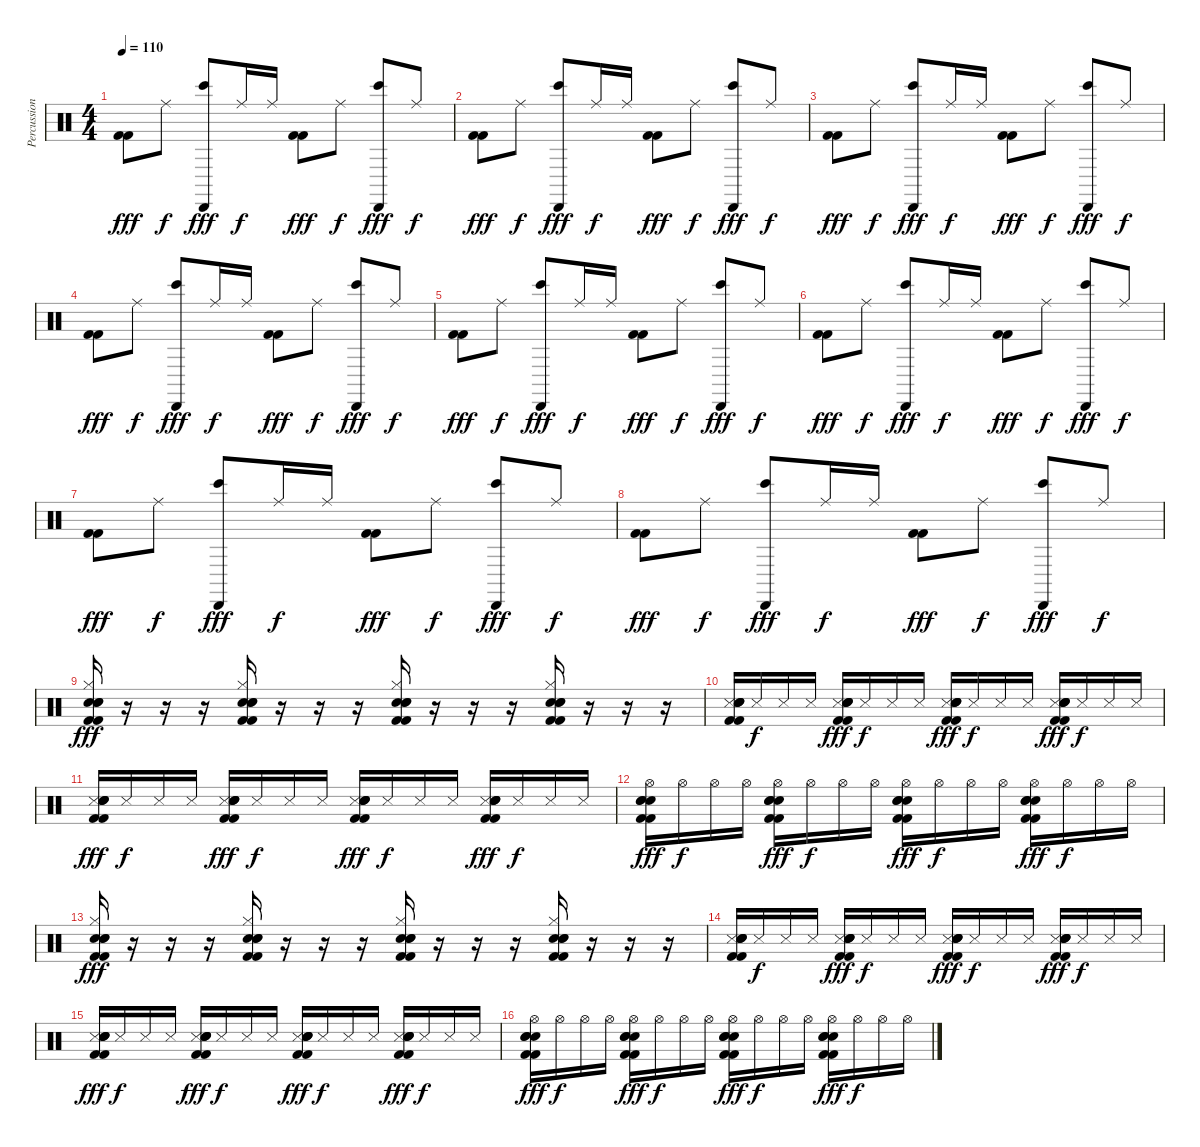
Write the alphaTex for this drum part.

\track ("Percussion" "Percussion") {instrument percussion}
\staff {score}
\articulation defaults
\ts (4 4)
\tempo 110
\clef neutral
\ks c
("Kick (hit) 2" "Kick (hit) 2").8{dy fff} "Ride (middle)".8{dy f} ("Bongo High (hit)" "Cabasa (hit)").8{dy fff} "Ride (middle)".16{dy f} "Ride (middle)".16 ("Kick (hit) 2" "Kick (hit) 2").8{dy fff} "Ride (middle)".8{dy f} ("Bongo High (hit)" "Cabasa (hit)").8{dy fff} "Ride (middle)".8{dy f} |
("Kick (hit) 2" "Kick (hit) 2").8{dy fff} "Ride (middle)".8{dy f} ("Bongo High (hit)" "Cabasa (hit)").8{dy fff} "Ride (middle)".16{dy f} "Ride (middle)".16 ("Kick (hit) 2" "Kick (hit) 2").8{dy fff} "Ride (middle)".8{dy f} ("Bongo High (hit)" "Cabasa (hit)").8{dy fff} "Ride (middle)".8{dy f} |
("Kick (hit) 2" "Kick (hit) 2").8{dy fff} "Ride (middle)".8{dy f} ("Bongo High (hit)" "Cabasa (hit)").8{dy fff} "Ride (middle)".16{dy f} "Ride (middle)".16 ("Kick (hit) 2" "Kick (hit) 2").8{dy fff} "Ride (middle)".8{dy f} ("Bongo High (hit)" "Cabasa (hit)").8{dy fff} "Ride (middle)".8{dy f} |
("Kick (hit) 2" "Kick (hit) 2").8{dy fff} "Ride (middle)".8{dy f} ("Bongo High (hit)" "Cabasa (hit)").8{dy fff} "Ride (middle)".16{dy f} "Ride (middle)".16 ("Kick (hit) 2" "Kick (hit) 2").8{dy fff} "Ride (middle)".8{dy f} ("Bongo High (hit)" "Cabasa (hit)").8{dy fff} "Ride (middle)".8{dy f} |
("Kick (hit) 2" "Kick (hit) 2").8{dy fff} "Ride (middle)".8{dy f} ("Bongo High (hit)" "Cabasa (hit)").8{dy fff} "Ride (middle)".16{dy f} "Ride (middle)".16 ("Kick (hit) 2" "Kick (hit) 2").8{dy fff} "Ride (middle)".8{dy f} ("Bongo High (hit)" "Cabasa (hit)").8{dy fff} "Ride (middle)".8{dy f} |
("Kick (hit) 2" "Kick (hit) 2").8{dy fff} "Ride (middle)".8{dy f} ("Bongo High (hit)" "Cabasa (hit)").8{dy fff} "Ride (middle)".16{dy f} "Ride (middle)".16 ("Kick (hit) 2" "Kick (hit) 2").8{dy fff} "Ride (middle)".8{dy f} ("Bongo High (hit)" "Cabasa (hit)").8{dy fff} "Ride (middle)".8{dy f} |
("Kick (hit) 2" "Kick (hit) 2").8{dy fff} "Ride (middle)".8{dy f} ("Bongo High (hit)" "Cabasa (hit)").8{dy fff} "Ride (middle)".16{dy f} "Ride (middle)".16 ("Kick (hit) 2" "Kick (hit) 2").8{dy fff} "Ride (middle)".8{dy f} ("Bongo High (hit)" "Cabasa (hit)").8{dy fff} "Ride (middle)".8{dy f} |
("Kick (hit) 2" "Kick (hit) 2").8{dy fff} "Ride (middle)".8{dy f} ("Bongo High (hit)" "Cabasa (hit)").8{dy fff} "Ride (middle)".16{dy f} "Ride (middle)".16 ("Kick (hit) 2" "Kick (hit) 2").8{dy fff} "Ride (middle)".8{dy f} ("Bongo High (hit)" "Cabasa (hit)").8{dy fff} "Ride (middle)".8{dy f} |
("Hi-Hat (closed)" "Electric Snare (hit)" "Kick (hit) 2" "Electric Snare (hit)" "Kick (hit) 2" "Electric Snare (hit)").16{dy fff volume 16} r.16 r.16 r.16 ("Hi-Hat (closed)" "Electric Snare (hit)" "Kick (hit) 2" "Electric Snare (hit)" "Kick (hit) 2" "Electric Snare (hit)").16 r.16 r.16 r.16 ("Hi-Hat (closed)" "Electric Snare (hit)" "Kick (hit) 2" "Electric Snare (hit)" "Kick (hit) 2" "Electric Snare (hit)").16 r.16 r.16 r.16 ("Hi-Hat (closed)" "Electric Snare (hit)" "Kick (hit) 2" "Electric Snare (hit)" "Kick (hit) 2" "Electric Snare (hit)").16 r.16 r.16 r.16 |
("Metronome (hit)" "Electric Snare (hit)" "Kick (hit) 2" "Electric Snare (hit)" "Kick (hit) 2" "Electric Snare (hit)").16 "Metronome (hit)".16{dy f} "Metronome (hit)".16 "Metronome (hit)".16 ("Metronome (hit)" "Electric Snare (hit)" "Kick (hit) 2" "Electric Snare (hit)" "Kick (hit) 2" "Electric Snare (hit)").16{dy fff} "Metronome (hit)".16{dy f} "Metronome (hit)".16 "Metronome (hit)".16 ("Metronome (hit)" "Electric Snare (hit)" "Kick (hit) 2" "Electric Snare (hit)" "Kick (hit) 2" "Electric Snare (hit)").16{dy fff} "Metronome (hit)".16{dy f} "Metronome (hit)".16 "Metronome (hit)".16 ("Metronome (hit)" "Electric Snare (hit)" "Kick (hit) 2" "Electric Snare (hit)" "Kick (hit) 2" "Electric Snare (hit)").16{dy fff} "Metronome (hit)".16{dy f} "Metronome (hit)".16 "Metronome (hit)".16 |
("Metronome (hit)" "Electric Snare (hit)" "Kick (hit) 2" "Electric Snare (hit)" "Kick (hit) 2" "Electric Snare (hit)").16{dy fff} "Metronome (hit)".16{dy f} "Metronome (hit)".16 "Metronome (hit)".16 ("Metronome (hit)" "Electric Snare (hit)" "Kick (hit) 2" "Electric Snare (hit)" "Kick (hit) 2" "Electric Snare (hit)").16{dy fff} "Metronome (hit)".16{dy f} "Metronome (hit)".16 "Metronome (hit)".16 ("Metronome (hit)" "Electric Snare (hit)" "Kick (hit) 2" "Electric Snare (hit)" "Kick (hit) 2" "Electric Snare (hit)").16{dy fff} "Metronome (hit)".16{dy f} "Metronome (hit)".16 "Metronome (hit)".16 ("Metronome (hit)" "Electric Snare (hit)" "Kick (hit) 2" "Electric Snare (hit)" "Kick (hit) 2" "Electric Snare (hit)").16{dy fff} "Metronome (hit)".16{dy f} "Metronome (hit)".16 "Metronome (hit)".16 |
("Hi-Hat (open)" "Electric Snare (hit)" "Kick (hit) 2" "Electric Snare (hit)" "Kick (hit) 2" "Electric Snare (hit)").16{dy fff} "Hi-Hat (open)".16{dy f} "Hi-Hat (open)".16 "Hi-Hat (open)".16 ("Hi-Hat (open)" "Electric Snare (hit)" "Kick (hit) 2" "Electric Snare (hit)" "Kick (hit) 2" "Electric Snare (hit)").16{dy fff} "Hi-Hat (open)".16{dy f} "Hi-Hat (open)".16 "Hi-Hat (open)".16 ("Hi-Hat (open)" "Electric Snare (hit)" "Kick (hit) 2" "Electric Snare (hit)" "Kick (hit) 2" "Electric Snare (hit)").16{dy fff} "Hi-Hat (open)".16{dy f} "Hi-Hat (open)".16 "Hi-Hat (open)".16 ("Hi-Hat (open)" "Electric Snare (hit)" "Kick (hit) 2" "Electric Snare (hit)" "Kick (hit) 2" "Electric Snare (hit)").16{dy fff} "Hi-Hat (open)".16{dy f} "Hi-Hat (open)".16 "Hi-Hat (open)".16 |
("Hi-Hat (closed)" "Electric Snare (hit)" "Kick (hit) 2" "Electric Snare (hit)" "Kick (hit) 2" "Electric Snare (hit)").16{dy fff volume 16} r.16 r.16 r.16 ("Hi-Hat (closed)" "Electric Snare (hit)" "Kick (hit) 2" "Electric Snare (hit)" "Kick (hit) 2" "Electric Snare (hit)").16 r.16 r.16 r.16 ("Hi-Hat (closed)" "Electric Snare (hit)" "Kick (hit) 2" "Electric Snare (hit)" "Kick (hit) 2" "Electric Snare (hit)").16 r.16 r.16 r.16 ("Hi-Hat (closed)" "Electric Snare (hit)" "Kick (hit) 2" "Electric Snare (hit)" "Kick (hit) 2" "Electric Snare (hit)").16 r.16 r.16 r.16 |
("Metronome (hit)" "Electric Snare (hit)" "Kick (hit) 2" "Electric Snare (hit)" "Kick (hit) 2" "Electric Snare (hit)").16 "Metronome (hit)".16{dy f} "Metronome (hit)".16 "Metronome (hit)".16 ("Metronome (hit)" "Electric Snare (hit)" "Kick (hit) 2" "Electric Snare (hit)" "Kick (hit) 2" "Electric Snare (hit)").16{dy fff} "Metronome (hit)".16{dy f} "Metronome (hit)".16 "Metronome (hit)".16 ("Metronome (hit)" "Electric Snare (hit)" "Kick (hit) 2" "Electric Snare (hit)" "Kick (hit) 2" "Electric Snare (hit)").16{dy fff} "Metronome (hit)".16{dy f} "Metronome (hit)".16 "Metronome (hit)".16 ("Metronome (hit)" "Electric Snare (hit)" "Kick (hit) 2" "Electric Snare (hit)" "Kick (hit) 2" "Electric Snare (hit)").16{dy fff} "Metronome (hit)".16{dy f} "Metronome (hit)".16 "Metronome (hit)".16 |
("Metronome (hit)" "Electric Snare (hit)" "Kick (hit) 2" "Electric Snare (hit)" "Kick (hit) 2" "Electric Snare (hit)").16{dy fff} "Metronome (hit)".16{dy f} "Metronome (hit)".16 "Metronome (hit)".16 ("Metronome (hit)" "Electric Snare (hit)" "Kick (hit) 2" "Electric Snare (hit)" "Kick (hit) 2" "Electric Snare (hit)").16{dy fff} "Metronome (hit)".16{dy f} "Metronome (hit)".16 "Metronome (hit)".16 ("Metronome (hit)" "Electric Snare (hit)" "Kick (hit) 2" "Electric Snare (hit)" "Kick (hit) 2" "Electric Snare (hit)").16{dy fff} "Metronome (hit)".16{dy f} "Metronome (hit)".16 "Metronome (hit)".16 ("Metronome (hit)" "Electric Snare (hit)" "Kick (hit) 2" "Electric Snare (hit)" "Kick (hit) 2" "Electric Snare (hit)").16{dy fff} "Metronome (hit)".16{dy f} "Metronome (hit)".16 "Metronome (hit)".16 |
("Hi-Hat (open)" "Electric Snare (hit)" "Kick (hit) 2" "Electric Snare (hit)" "Kick (hit) 2" "Electric Snare (hit)").16{dy fff} "Hi-Hat (open)".16{dy f} "Hi-Hat (open)".16 "Hi-Hat (open)".16 ("Hi-Hat (open)" "Electric Snare (hit)" "Kick (hit) 2" "Electric Snare (hit)" "Kick (hit) 2" "Electric Snare (hit)").16{dy fff} "Hi-Hat (open)".16{dy f} "Hi-Hat (open)".16 "Hi-Hat (open)".16 ("Hi-Hat (open)" "Electric Snare (hit)" "Kick (hit) 2" "Electric Snare (hit)" "Kick (hit) 2" "Electric Snare (hit)").16{dy fff} "Hi-Hat (open)".16{dy f} "Hi-Hat (open)".16 "Hi-Hat (open)".16 ("Hi-Hat (open)" "Electric Snare (hit)" "Kick (hit) 2" "Electric Snare (hit)" "Kick (hit) 2" "Electric Snare (hit)").16{dy fff} "Hi-Hat (open)".16{dy f} "Hi-Hat (open)".16 "Hi-Hat (open)".16
